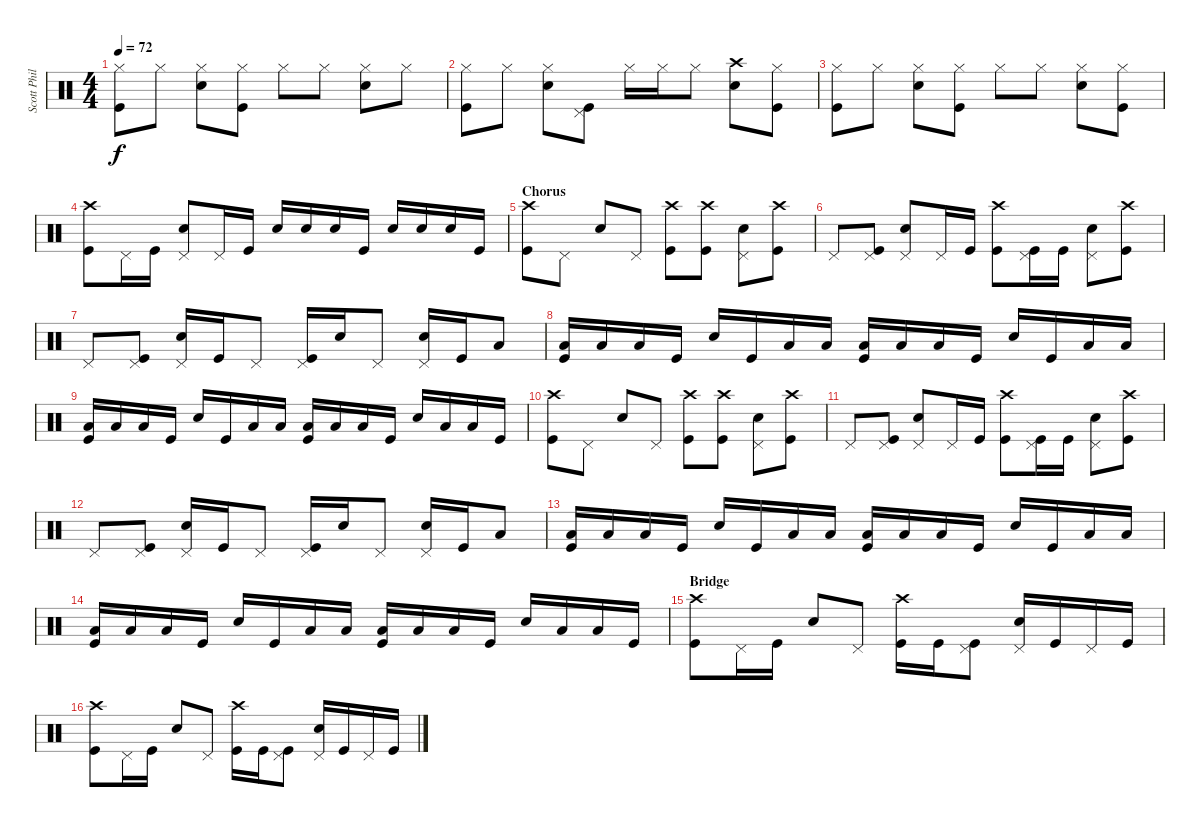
\track ("Scott Phillips" "Scott Phil") {instrument percussion}
\staff {score}
\articulation defaults
\ts (4 4)
\tempo 72
\clef neutral
\ks c
("Hi-Hat (closed)" "Kick (hit)").8{dy f} "Hi-Hat (closed)".8 ("Hi-Hat (closed)" "Snare (hit) 2").8 ("Hi-Hat (closed)" "Kick (hit)").8 "Hi-Hat (closed)".8 "Hi-Hat (closed)".8 ("Hi-Hat (closed)" "Snare (hit) 2").8 "Hi-Hat (closed)".8 |
("Hi-Hat (closed)" "Kick (hit)").8 "Hi-Hat (closed)".8 ("Hi-Hat (closed)" "Snare (hit) 2").8 ("Pedal Hi-Hat (hit)" "Kick (hit)").8 "Hi-Hat (closed)".16 "Hi-Hat (closed)".16 "Hi-Hat (closed)".8 ("Crash high (hit)" "Snare (hit) 2").8 ("Hi-Hat (closed)" "Kick (hit)").8 |
("Hi-Hat (closed)" "Kick (hit)").8 "Hi-Hat (closed)".8 ("Hi-Hat (closed)" "Snare (hit) 2").8 ("Hi-Hat (closed)" "Kick (hit)").8 "Hi-Hat (closed)".8 "Hi-Hat (closed)".8 ("Hi-Hat (closed)" "Snare (hit) 2").8 ("Hi-Hat (closed)" "Kick (hit)").8 |
("Crash high (hit)" "Kick (hit)").8 "Pedal Hi-Hat (hit)".16 "Kick (hit)".16 ("Pedal Hi-Hat (hit)" "Snare (hit) 2").8 "Pedal Hi-Hat (hit)".16 "Kick (hit)".16 "Snare (hit) 2".16 "Snare (hit) 2".16 "Snare (hit) 2".16 "Kick (hit)".16 "Snare (hit) 2".16 "Snare (hit) 2".16 "Snare (hit) 2".16 "Kick (hit)".16 |
\section ("" "Chorus")
("Crash high (hit)" "Kick (hit)").8 "Pedal Hi-Hat (hit)".8 "Snare (hit) 2".8 "Pedal Hi-Hat (hit)".8 ("Crash high (hit)" "Kick (hit)").8 ("Crash high (hit)" "Kick (hit)").8 ("Pedal Hi-Hat (hit)" "Snare (hit) 2").8 ("Crash high (hit)" "Kick (hit)").8 |
"Pedal Hi-Hat (hit)".8 ("Pedal Hi-Hat (hit)" "Kick (hit)").8 ("Pedal Hi-Hat (hit)" "Snare (hit) 2").8 "Pedal Hi-Hat (hit)".16 "Kick (hit)".16 ("Crash high (hit)" "Kick (hit)").8 ("Pedal Hi-Hat (hit)" "Kick (hit)").16 "Kick (hit)".16 ("Pedal Hi-Hat (hit)" "Snare (hit) 2").8 ("Crash high (hit)" "Kick (hit)").8 |
"Pedal Hi-Hat (hit)".8 ("Pedal Hi-Hat (hit)" "Kick (hit)").8 ("Pedal Hi-Hat (hit)" "Snare (hit) 2").16 "Kick (hit)".16 "Pedal Hi-Hat (hit)".8 ("Pedal Hi-Hat (hit)" "Kick (hit)").16 "Snare (hit) 2".16 "Pedal Hi-Hat (hit)".8 ("Pedal Hi-Hat (hit)" "Snare (hit) 2").16 "Kick (hit)".16 "Low Tom (hit)".8 |
("Low Tom (hit)" "Kick (hit)").16 "Low Tom (hit)".16 "Low Tom (hit)".16 "Kick (hit)".16 "Snare (hit) 2".16 "Kick (hit)".16 "Low Tom (hit)".16 "Low Tom (hit)".16 ("Low Tom (hit)" "Kick (hit)").16 "Low Tom (hit)".16 "Low Tom (hit)".16 "Kick (hit)".16 "Snare (hit) 2".16 "Kick (hit)".16 "Low Tom (hit)".16 "Low Tom (hit)".16 |
("Low Tom (hit)" "Kick (hit)").16 "Low Tom (hit)".16 "Low Tom (hit)".16 "Kick (hit)".16 "Snare (hit) 2".16 "Kick (hit)".16 "Low Tom (hit)".16 "Low Tom (hit)".16 ("Low Tom (hit)" "Kick (hit)").16 "Low Tom (hit)".16 "Low Tom (hit)".16 "Kick (hit)".16 "Snare (hit) 2".16 "Low Tom (hit)".16 "Low Tom (hit)".16 "Kick (hit)".16 |
("Crash high (hit)" "Kick (hit)").8 "Pedal Hi-Hat (hit)".8 "Snare (hit) 2".8 "Pedal Hi-Hat (hit)".8 ("Crash high (hit)" "Kick (hit)").8 ("Crash high (hit)" "Kick (hit)").8 ("Pedal Hi-Hat (hit)" "Snare (hit) 2").8 ("Crash high (hit)" "Kick (hit)").8 |
"Pedal Hi-Hat (hit)".8 ("Pedal Hi-Hat (hit)" "Kick (hit)").8 ("Pedal Hi-Hat (hit)" "Snare (hit) 2").8 "Pedal Hi-Hat (hit)".16 "Kick (hit)".16 ("Crash high (hit)" "Kick (hit)").8 ("Pedal Hi-Hat (hit)" "Kick (hit)").16 "Kick (hit)".16 ("Pedal Hi-Hat (hit)" "Snare (hit) 2").8 ("Crash high (hit)" "Kick (hit)").8 |
"Pedal Hi-Hat (hit)".8 ("Pedal Hi-Hat (hit)" "Kick (hit)").8 ("Pedal Hi-Hat (hit)" "Snare (hit) 2").16 "Kick (hit)".16 "Pedal Hi-Hat (hit)".8 ("Pedal Hi-Hat (hit)" "Kick (hit)").16 "Snare (hit) 2".16 "Pedal Hi-Hat (hit)".8 ("Pedal Hi-Hat (hit)" "Snare (hit) 2").16 "Kick (hit)".16 "Low Tom (hit)".8 |
("Low Tom (hit)" "Kick (hit)").16 "Low Tom (hit)".16 "Low Tom (hit)".16 "Kick (hit)".16 "Snare (hit) 2".16 "Kick (hit)".16 "Low Tom (hit)".16 "Low Tom (hit)".16 ("Low Tom (hit)" "Kick (hit)").16 "Low Tom (hit)".16 "Low Tom (hit)".16 "Kick (hit)".16 "Snare (hit) 2".16 "Kick (hit)".16 "Low Tom (hit)".16 "Low Tom (hit)".16 |
("Low Tom (hit)" "Kick (hit)").16 "Low Tom (hit)".16 "Low Tom (hit)".16 "Kick (hit)".16 "Snare (hit) 2".16 "Kick (hit)".16 "Low Tom (hit)".16 "Low Tom (hit)".16 ("Low Tom (hit)" "Kick (hit)").16 "Low Tom (hit)".16 "Low Tom (hit)".16 "Kick (hit)".16 "Snare (hit) 2".16 "Low Tom (hit)".16 "Low Tom (hit)".16 "Kick (hit)".16 |
\section ("" "Bridge")
("Crash high (hit)" "Kick (hit)").8 "Pedal Hi-Hat (hit)".16 "Kick (hit)".16 "Snare (hit) 2".8 "Pedal Hi-Hat (hit)".8 ("Crash high (hit)" "Kick (hit)").16 "Kick (hit)".16 ("Pedal Hi-Hat (hit)" "Kick (hit)").8 ("Pedal Hi-Hat (hit)" "Snare (hit) 2").16 "Kick (hit)".16 "Pedal Hi-Hat (hit)".16 "Kick (hit)".16 |
("Crash high (hit)" "Kick (hit)").8 "Pedal Hi-Hat (hit)".16 "Kick (hit)".16 "Snare (hit) 2".8 "Pedal Hi-Hat (hit)".8 ("Crash high (hit)" "Kick (hit)").16 "Kick (hit)".16 ("Pedal Hi-Hat (hit)" "Kick (hit)").8 ("Pedal Hi-Hat (hit)" "Snare (hit) 2").16 "Kick (hit)".16 "Pedal Hi-Hat (hit)".16 "Kick (hit)".16
